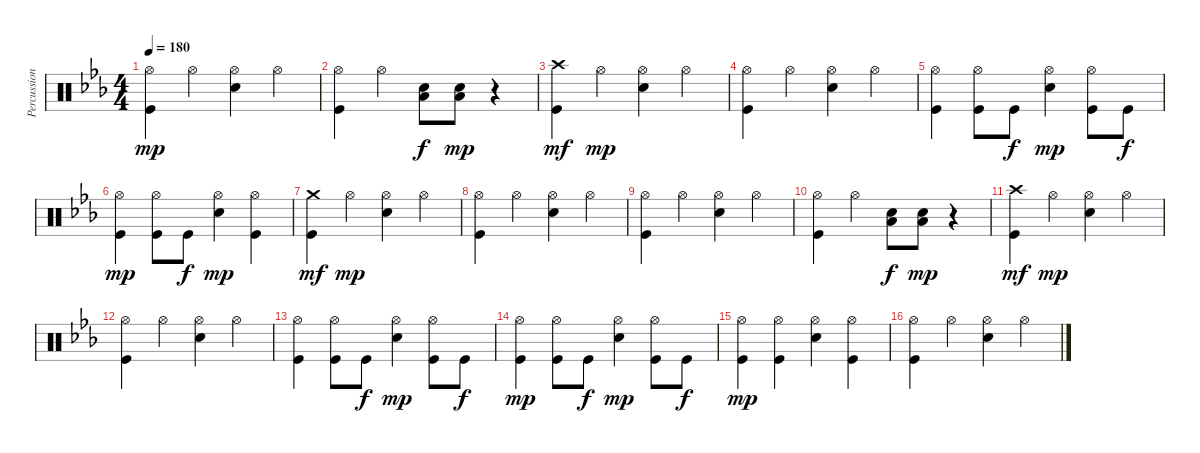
\track ("Percussion" "Percussion") {instrument percussion}
\staff {score}
\articulation defaults
\ts (4 4)
\tempo 180
\clef neutral
\ks cminor
("Hi-Hat (open)" "Kick (hit)").4{dy mp} "Hi-Hat (open)".4 ("Hi-Hat (open)" "Snare (hit) 2").4 "Hi-Hat (open)".4 |
("Hi-Hat (open)" "Kick (hit)").4 "Hi-Hat (open)".4 ("Low Floor Tom (hit)" "Snare (hit) 2").8{dy f} ("Low Floor Tom (hit)" "Snare (hit) 2").8{dy mp} r.4 |
("Crash high (hit)" "Kick (hit)").4{dy mf} "Hi-Hat (open)".4{dy mp} ("Hi-Hat (open)" "Snare (hit) 2").4 "Hi-Hat (open)".4 |
("Hi-Hat (open)" "Kick (hit)").4 "Hi-Hat (open)".4 ("Hi-Hat (open)" "Snare (hit) 2").4 "Hi-Hat (open)".4 |
("Hi-Hat (open)" "Kick (hit)").4 ("Hi-Hat (open)" "Kick (hit)").8 "Kick (hit)".8{dy f} ("Hi-Hat (open)" "Snare (hit) 2").4{dy mp} ("Hi-Hat (open)" "Kick (hit)").8 "Kick (hit)".8{dy f} |
("Hi-Hat (open)" "Kick (hit)").4{dy mp} ("Hi-Hat (open)" "Kick (hit)").8 "Kick (hit)".8{dy f} ("Hi-Hat (open)" "Snare (hit) 2").4{dy mp} ("Hi-Hat (open)" "Kick (hit)").4 |
("Crash medium (hit)" "Kick (hit)").4{dy mf} "Hi-Hat (open)".4{dy mp} ("Hi-Hat (open)" "Snare (hit) 2").4 "Hi-Hat (open)".4 |
("Hi-Hat (open)" "Kick (hit)").4 "Hi-Hat (open)".4 ("Hi-Hat (open)" "Snare (hit) 2").4 "Hi-Hat (open)".4 |
("Hi-Hat (open)" "Kick (hit)").4 "Hi-Hat (open)".4 ("Hi-Hat (open)" "Snare (hit) 2").4 "Hi-Hat (open)".4 |
("Hi-Hat (open)" "Kick (hit)").4 "Hi-Hat (open)".4 ("Low Floor Tom (hit)" "Snare (hit) 2").8{dy f} ("Low Floor Tom (hit)" "Snare (hit) 2").8{dy mp} r.4 |
("Crash high (hit)" "Kick (hit)").4{dy mf} "Hi-Hat (open)".4{dy mp} ("Hi-Hat (open)" "Snare (hit) 2").4 "Hi-Hat (open)".4 |
("Hi-Hat (open)" "Kick (hit)").4 "Hi-Hat (open)".4 ("Hi-Hat (open)" "Snare (hit) 2").4 "Hi-Hat (open)".4 |
("Hi-Hat (open)" "Kick (hit)").4 ("Hi-Hat (open)" "Kick (hit)").8 "Kick (hit)".8{dy f} ("Hi-Hat (open)" "Snare (hit) 2").4{dy mp} ("Hi-Hat (open)" "Kick (hit)").8 "Kick (hit)".8{dy f} |
("Hi-Hat (open)" "Kick (hit)").4{dy mp} ("Hi-Hat (open)" "Kick (hit)").8 "Kick (hit)".8{dy f} ("Hi-Hat (open)" "Snare (hit) 2").4{dy mp} ("Hi-Hat (open)" "Kick (hit)").8 "Kick (hit)".8{dy f} |
("Hi-Hat (open)" "Kick (hit)").4{dy mp} ("Hi-Hat (open)" "Kick (hit)").4 ("Hi-Hat (open)" "Snare (hit) 2").4 ("Hi-Hat (open)" "Kick (hit)").4 |
("Hi-Hat (open)" "Kick (hit)").4 "Hi-Hat (open)".4 ("Hi-Hat (open)" "Snare (hit) 2").4 "Hi-Hat (open)".4
